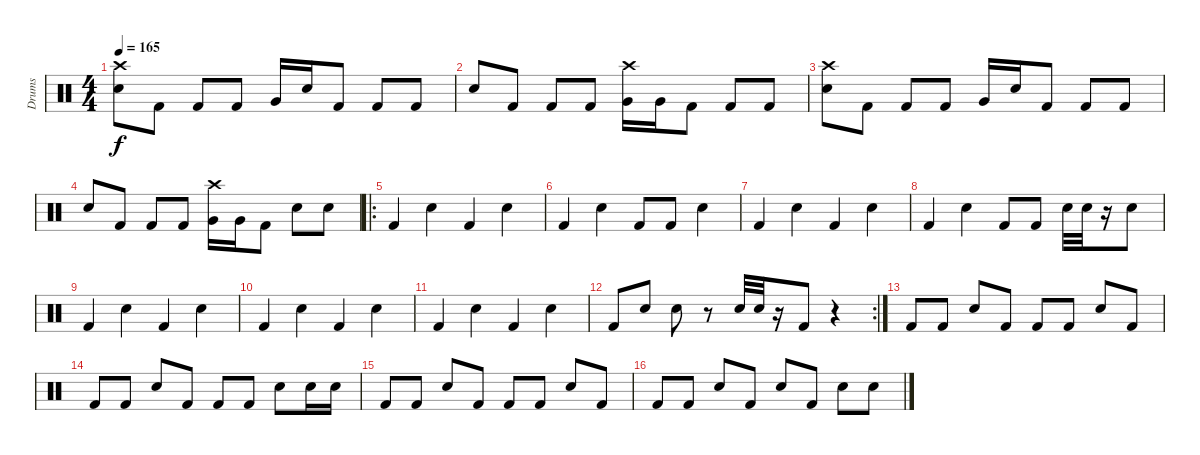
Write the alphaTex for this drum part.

\track ("Drums" "Drums") {instrument percussion}
\staff {score}
\articulation defaults
\ts (4 4)
\tempo 165
\clef neutral
\ks c
("Snare (hit) 2" "Crash high (hit)").8{dy f} "Kick (hit) 2".8 "Kick (hit) 2".8 "Kick (hit) 2".8 "Very Low Tom (hit)".16 "Snare (hit) 2".16 "Kick (hit) 2".8 "Kick (hit) 2".8 "Kick (hit) 2".8 |
"Snare (hit) 2".8 "Kick (hit) 2".8 "Kick (hit) 2".8 "Kick (hit) 2".8 ("Very Low Tom (hit)" "Crash high (hit)").16 "Very Low Tom (hit)".16 "Kick (hit) 2".8 "Kick (hit) 2".8 "Kick (hit) 2".8 |
("Snare (hit) 2" "Crash high (hit)").8 "Kick (hit) 2".8 "Kick (hit) 2".8 "Kick (hit) 2".8 "Very Low Tom (hit)".16 "Snare (hit) 2".16 "Kick (hit) 2".8 "Kick (hit) 2".8 "Kick (hit) 2".8 |
"Snare (hit) 2".8 "Kick (hit) 2".8 "Kick (hit) 2".8 "Kick (hit) 2".8 ("Very Low Tom (hit)" "Crash high (hit)").16 "Very Low Tom (hit)".16 "Kick (hit) 2".8 "Snare (hit) 2".8 "Snare (hit) 2".8 |
\ro "Kick (hit) 2".4 "Snare (hit) 2".4 "Kick (hit) 2".4 "Snare (hit) 2".4
|
"Kick (hit) 2".4 "Snare (hit) 2".4 "Kick (hit) 2".8 "Kick (hit) 2".8 "Snare (hit) 2".4 |
"Kick (hit) 2".4 "Snare (hit) 2".4 "Kick (hit) 2".4 "Snare (hit) 2".4 |
"Kick (hit) 2".4 "Snare (hit) 2".4 "Kick (hit) 2".8 "Kick (hit) 2".8 "Snare (hit) 2".32 "Snare (hit) 2".32 r.16 "Snare (hit) 2".8 |
"Kick (hit) 2".4 "Snare (hit) 2".4 "Kick (hit) 2".4 "Snare (hit) 2".4 |
"Kick (hit) 2".4 "Snare (hit) 2".4 "Kick (hit) 2".4 "Snare (hit) 2".4 |
"Kick (hit) 2".4 "Snare (hit) 2".4 "Kick (hit) 2".4 "Snare (hit) 2".4 |
\rc 2 "Kick (hit) 2".8 "Snare (hit) 2".8 "Snare (hit) 2".8
r.8 "Snare (hit) 2".32 "Snare (hit) 2".32 r.16 "Kick (hit) 2".8 r.4 |
"Kick (hit) 2".8 "Kick (hit) 2".8 "Snare (hit) 2".8 "Kick (hit) 2".8 "Kick (hit) 2".8 "Kick (hit) 2".8 "Snare (hit) 2".8 "Kick (hit) 2".8 |
"Kick (hit) 2".8 "Kick (hit) 2".8 "Snare (hit) 2".8 "Kick (hit) 2".8 "Kick (hit) 2".8 "Kick (hit) 2".8 "Snare (hit) 2".8 "Snare (hit) 2".16 "Snare (hit) 2".16 |
"Kick (hit) 2".8 "Kick (hit) 2".8 "Snare (hit) 2".8 "Kick (hit) 2".8 "Kick (hit) 2".8 "Kick (hit) 2".8 "Snare (hit) 2".8 "Kick (hit) 2".8 |
"Kick (hit) 2".8 "Kick (hit) 2".8 "Snare (hit) 2".8 "Kick (hit) 2".8 "Snare (hit) 2".8 "Kick (hit) 2".8 "Snare (hit) 2".8 "Snare (hit) 2".8
